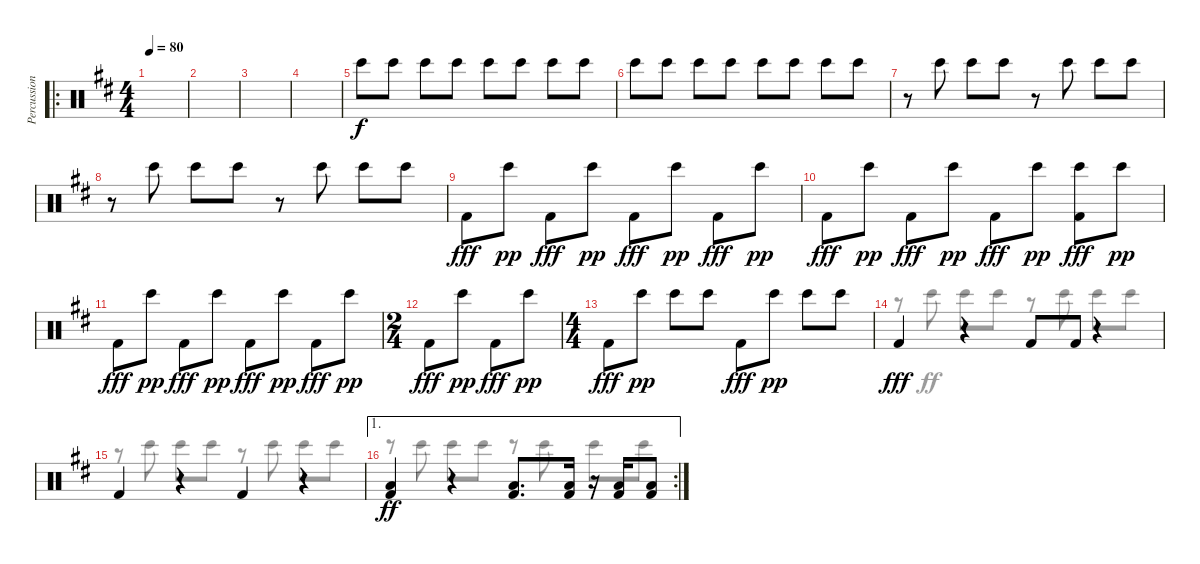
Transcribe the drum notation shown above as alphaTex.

\track ("Percussion" "Percussion") {instrument percussion}
\staff {score}
\articulation defaults
\voice
\ro
\ts (4 4)
\tempo 80
\clef neutral
\ks d
|
|
|
|
"Bongo High (hit)".8 "Bongo High (hit)".8 "Bongo High (hit)".8 "Bongo High (hit)".8 "Bongo High (hit)".8 "Bongo High (hit)".8 "Bongo High (hit)".8 "Bongo High (hit)".8 |
"Bongo High (hit)".8 "Bongo High (hit)".8 "Bongo High (hit)".8 "Bongo High (hit)".8 "Bongo High (hit)".8 "Bongo High (hit)".8 "Bongo High (hit)".8 "Bongo High (hit)".8 |
r.8 "Bongo High (hit)".8 "Bongo High (hit)".8 "Bongo High (hit)".8 r.8 "Bongo High (hit)".8 "Bongo High (hit)".8 "Bongo High (hit)".8 |
r.8 "Bongo High (hit)".8 "Bongo High (hit)".8 "Bongo High (hit)".8 r.8 "Bongo High (hit)".8 "Bongo High (hit)".8 "Bongo High (hit)".8 |
"Kick (hit) 2".8{dy fff} "Bongo High (hit)".8{dy pp} "Kick (hit) 2".8{dy fff} "Bongo High (hit)".8{dy pp} "Kick (hit) 2".8{dy fff} "Bongo High (hit)".8{dy pp} "Kick (hit) 2".8{dy fff} "Bongo High (hit)".8{dy pp} |
"Kick (hit) 2".8{dy fff} "Bongo High (hit)".8{dy pp} "Kick (hit) 2".8{dy fff} "Bongo High (hit)".8{dy pp} "Kick (hit) 2".8{dy fff} "Bongo High (hit)".8{dy pp} ("Bongo High (hit)" "Kick (hit) 2").8{dy fff} "Bongo High (hit)".8{dy pp} |
"Kick (hit) 2".8{dy fff} "Bongo High (hit)".8{dy pp} "Kick (hit) 2".8{dy fff} "Bongo High (hit)".8{dy pp} "Kick (hit) 2".8{dy fff} "Bongo High (hit)".8{dy pp} "Kick (hit) 2".8{dy fff} "Bongo High (hit)".8{dy pp} |
\ts (2 4)
"Kick (hit) 2".8{dy fff} "Bongo High (hit)".8{dy pp} "Kick (hit) 2".8{dy fff} "Bongo High (hit)".8{dy pp} |
\ts (4 4)
"Kick (hit) 2".8{dy fff} "Bongo High (hit)".8{dy pp} "Bongo High (hit)".8 "Bongo High (hit)".8 "Kick (hit) 2".8{dy fff} "Bongo High (hit)".8{dy pp} "Bongo High (hit)".8 "Bongo High (hit)".8 |
"Kick (hit) 2".4{dy fff} r.4 "Kick (hit) 2".8 "Kick (hit) 2".8 r.4 |
"Kick (hit) 2".4 r.4 "Kick (hit) 2".4 r.4 |
\ae 1
\rc 2
("Kick (hit) 2" "Low Floor Tom (hit)").4{dy ff} r.4 ("Kick (hit) 2" "Low Floor Tom (hit)").8{d} ("Kick (hit) 2" "Low Floor Tom (hit)").16 r.16 ("Kick (hit) 2" "Low Floor Tom (hit)").16 ("Kick (hit) 2" "Low Floor Tom (hit)").8
\voice
\clef neutral
\ottava regular
\simile none
\ks d
|
|
|
|
|
|
|
|
|
|
|
|
|
r.8 "Bongo High (hit)".8 "Bongo High (hit)".8 "Bongo High (hit)".8 r.8 "Bongo High (hit)".8 "Bongo High (hit)".8 "Bongo High (hit)".8 |
r.8 "Bongo High (hit)".8 "Bongo High (hit)".8 "Bongo High (hit)".8 r.8 "Bongo High (hit)".8 "Bongo High (hit)".8 "Bongo High (hit)".8 |
r.8 "Bongo High (hit)".8 "Bongo High (hit)".8 "Bongo High (hit)".8 r.8 "Bongo High (hit)".8 "Bongo High (hit)".8 "Bongo High (hit)".8
